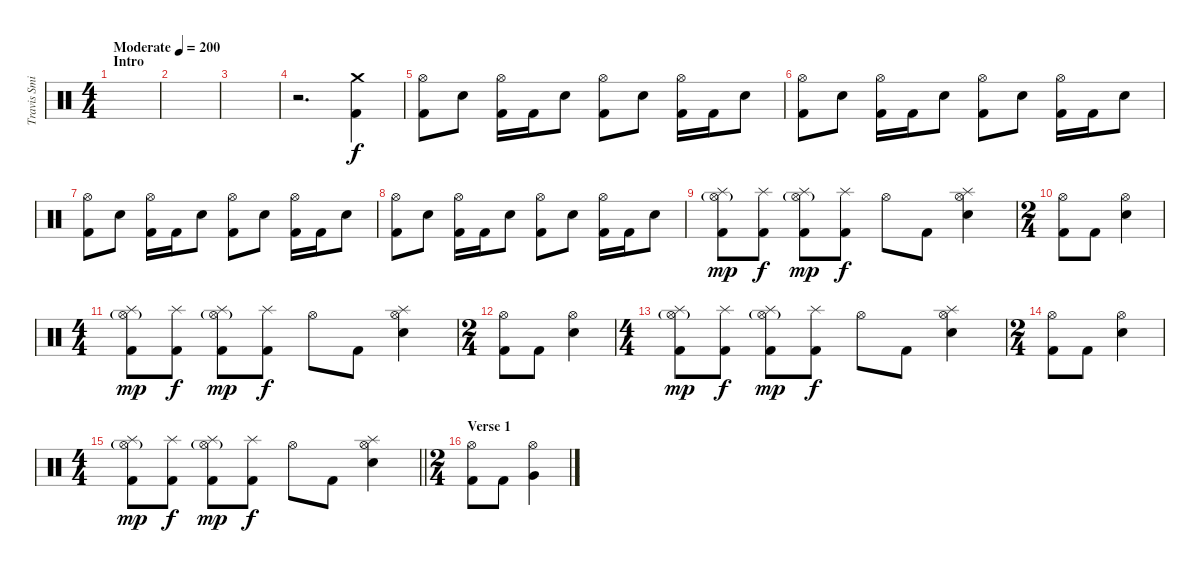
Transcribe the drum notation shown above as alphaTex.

\track ("Travis Smith" "Travis Smi") {instrument percussion}
\staff {score}
\articulation defaults
\ts (4 4)
\section ("" "Intro")
\tempo (200 "Moderate")
\clef neutral
\ks c
|
|
|
r.2{d} ("Crash medium (hit)" "Kick (hit) 2").4 |
("Hi-Hat (open)" "Kick (hit) 2").8 "Electric Snare (hit)".8 ("Hi-Hat (open)" "Kick (hit) 2").16 "Kick (hit) 2".16 "Electric Snare (hit)".8 ("Hi-Hat (open)" "Kick (hit) 2").8 "Electric Snare (hit)".8 ("Hi-Hat (open)" "Kick (hit) 2").16 "Kick (hit) 2".16 "Electric Snare (hit)".8 |
("Hi-Hat (open)" "Kick (hit) 2").8 "Electric Snare (hit)".8 ("Hi-Hat (open)" "Kick (hit) 2").16 "Kick (hit) 2".16 "Electric Snare (hit)".8 ("Hi-Hat (open)" "Kick (hit) 2").8 "Electric Snare (hit)".8 ("Hi-Hat (open)" "Kick (hit) 2").16 "Kick (hit) 2".16 "Electric Snare (hit)".8 |
("Hi-Hat (open)" "Kick (hit) 2").8 "Electric Snare (hit)".8 ("Hi-Hat (open)" "Kick (hit) 2").16 "Kick (hit) 2".16 "Electric Snare (hit)".8 ("Hi-Hat (open)" "Kick (hit) 2").8 "Electric Snare (hit)".8 ("Hi-Hat (open)" "Kick (hit) 2").16 "Kick (hit) 2".16 "Electric Snare (hit)".8 |
("Hi-Hat (open)" "Kick (hit) 2").8 "Electric Snare (hit)".8 ("Hi-Hat (open)" "Kick (hit) 2").16 "Kick (hit) 2".16 "Electric Snare (hit)".8 ("Hi-Hat (open)" "Kick (hit) 2").8 "Electric Snare (hit)".8 ("Hi-Hat (open)" "Kick (hit) 2").16 "Kick (hit) 2".16 "Electric Snare (hit)".8 |
("Splash (hit)" "Hi-Hat (open)"{g} "Kick (hit) 2").8{dy mp} ("Splash (hit)" "Kick (hit) 2").8{dy f} ("Splash (hit)" "Hi-Hat (open)"{g} "Kick (hit) 2").8{dy mp} ("Splash (hit)" "Kick (hit) 2").8{dy f} "Hi-Hat (open)".8 "Kick (hit) 2".8 ("Splash (hit)" "Hi-Hat (open)" "Electric Snare (hit)").4 |
\ts (2 4)
("Hi-Hat (open)" "Kick (hit) 2").8 "Kick (hit) 2".8 ("Hi-Hat (open)" "Electric Snare (hit)").4 |
\ts (4 4)
("Splash (hit)" "Hi-Hat (open)"{g} "Kick (hit) 2").8{dy mp} ("Splash (hit)" "Kick (hit) 2").8{dy f} ("Splash (hit)" "Hi-Hat (open)"{g} "Kick (hit) 2").8{dy mp} ("Splash (hit)" "Kick (hit) 2").8{dy f} "Hi-Hat (open)".8 "Kick (hit) 2".8 ("Splash (hit)" "Hi-Hat (open)" "Electric Snare (hit)").4 |
\ts (2 4)
("Hi-Hat (open)" "Kick (hit) 2").8 "Kick (hit) 2".8 ("Hi-Hat (open)" "Electric Snare (hit)").4 |
\ts (4 4)
("Splash (hit)" "Hi-Hat (open)"{g} "Kick (hit) 2").8{dy mp} ("Splash (hit)" "Kick (hit) 2").8{dy f} ("Splash (hit)" "Hi-Hat (open)"{g} "Kick (hit) 2").8{dy mp} ("Splash (hit)" "Kick (hit) 2").8{dy f} "Hi-Hat (open)".8 "Kick (hit) 2".8 ("Splash (hit)" "Hi-Hat (open)" "Electric Snare (hit)").4 |
\ts (2 4)
("Hi-Hat (open)" "Kick (hit) 2").8 "Kick (hit) 2".8 ("Hi-Hat (open)" "Electric Snare (hit)").4 |
\ts (4 4)
\barLineRight lightlight
("Splash (hit)" "Hi-Hat (open)"{g} "Kick (hit) 2").8{dy mp} ("Splash (hit)" "Kick (hit) 2").8{dy f} ("Splash (hit)" "Hi-Hat (open)"{g} "Kick (hit) 2").8{dy mp} ("Splash (hit)" "Kick (hit) 2").8{dy f} "Hi-Hat (open)".8 "Kick (hit) 2".8 ("Splash (hit)" "Hi-Hat (open)" "Electric Snare (hit)").4 |
\ts (2 4)
\section ("" "Verse 1")
("Hi-Hat (open)" "Kick (hit) 2").8 "Kick (hit) 2".8 ("Hi-Hat (open)" "Very Low Tom (hit)").4
